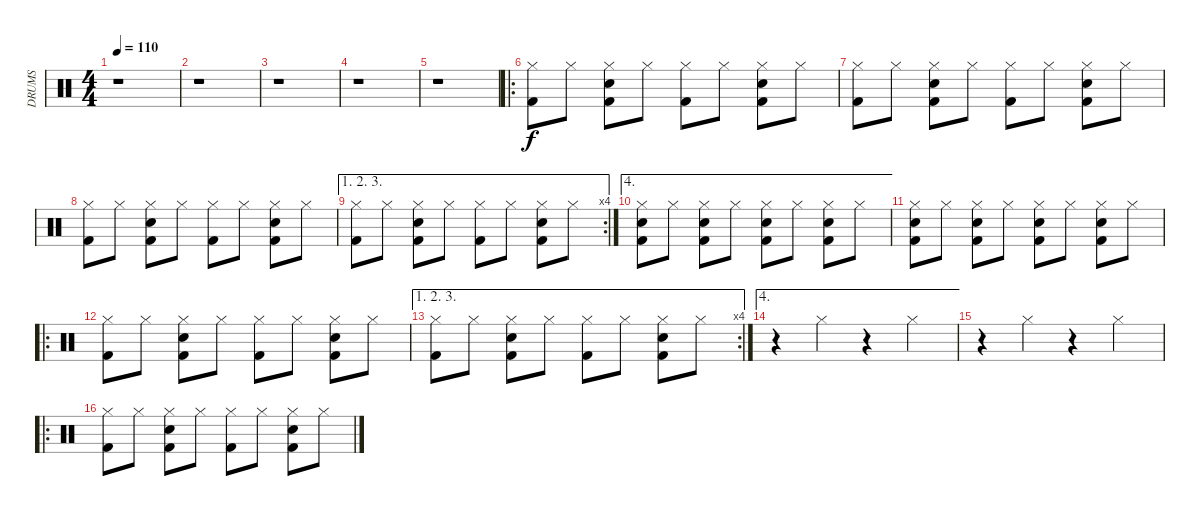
\track ("DRUMS" "DRUMS") {instrument percussion}
\staff {score}
\articulation defaults
\ts (4 4)
\tempo 110
\clef neutral
\ks c
r.1{dy f} |
r.1 |
r.1 |
r.1 |
r.1 |
\ro
("Hi-Hat (closed)" "Kick (hit) 2").8 "Hi-Hat (closed)".8 ("Hi-Hat (closed)" "Snare (hit) 2" "Kick (hit) 2").8 "Hi-Hat (closed)".8 ("Hi-Hat (closed)" "Kick (hit) 2").8 "Hi-Hat (closed)".8 ("Hi-Hat (closed)" "Snare (hit) 2" "Kick (hit) 2").8 "Hi-Hat (closed)".8 |
("Hi-Hat (closed)" "Kick (hit) 2").8 "Hi-Hat (closed)".8 ("Hi-Hat (closed)" "Snare (hit) 2" "Kick (hit) 2").8 "Hi-Hat (closed)".8 ("Hi-Hat (closed)" "Kick (hit) 2").8 "Hi-Hat (closed)".8 ("Hi-Hat (closed)" "Snare (hit) 2" "Kick (hit) 2").8 "Hi-Hat (closed)".8 |
("Hi-Hat (closed)" "Kick (hit) 2").8 "Hi-Hat (closed)".8 ("Hi-Hat (closed)" "Snare (hit) 2" "Kick (hit) 2").8 "Hi-Hat (closed)".8 ("Hi-Hat (closed)" "Kick (hit) 2").8 "Hi-Hat (closed)".8 ("Hi-Hat (closed)" "Snare (hit) 2" "Kick (hit) 2").8 "Hi-Hat (closed)".8 |
\ae (1 2 3)
\rc 4
("Hi-Hat (closed)" "Kick (hit) 2").8 "Hi-Hat (closed)".8 ("Hi-Hat (closed)" "Snare (hit) 2" "Kick (hit) 2").8 "Hi-Hat (closed)".8 ("Hi-Hat (closed)" "Kick (hit) 2").8 "Hi-Hat (closed)".8 ("Hi-Hat (closed)" "Snare (hit) 2" "Kick (hit) 2").8 "Hi-Hat (closed)".8 |
\ae 4
("Hi-Hat (closed)" "Snare (hit) 2" "Kick (hit) 2").8 "Hi-Hat (closed)".8 ("Hi-Hat (closed)" "Snare (hit) 2" "Kick (hit) 2").8 "Hi-Hat (closed)".8 ("Hi-Hat (closed)" "Snare (hit) 2" "Kick (hit) 2").8 "Hi-Hat (closed)".8 ("Hi-Hat (closed)" "Snare (hit) 2" "Kick (hit) 2").8 "Hi-Hat (closed)".8 |
("Hi-Hat (closed)" "Snare (hit) 2" "Kick (hit) 2").8 "Hi-Hat (closed)".8 ("Hi-Hat (closed)" "Snare (hit) 2" "Kick (hit) 2").8 "Hi-Hat (closed)".8 ("Hi-Hat (closed)" "Snare (hit) 2" "Kick (hit) 2").8 "Hi-Hat (closed)".8 ("Hi-Hat (closed)" "Snare (hit) 2" "Kick (hit) 2").8 "Hi-Hat (closed)".8 |
\ro
("Hi-Hat (closed)" "Kick (hit) 2").8 "Hi-Hat (closed)".8 ("Hi-Hat (closed)" "Snare (hit) 2" "Kick (hit) 2").8 "Hi-Hat (closed)".8 ("Hi-Hat (closed)" "Kick (hit) 2").8 "Hi-Hat (closed)".8 ("Hi-Hat (closed)" "Snare (hit) 2" "Kick (hit) 2").8 "Hi-Hat (closed)".8 |
\ae (1 2 3)
\rc 4
("Hi-Hat (closed)" "Kick (hit) 2").8 "Hi-Hat (closed)".8 ("Hi-Hat (closed)" "Snare (hit) 2" "Kick (hit) 2").8 "Hi-Hat (closed)".8 ("Hi-Hat (closed)" "Kick (hit) 2").8 "Hi-Hat (closed)".8 ("Hi-Hat (closed)" "Snare (hit) 2" "Kick (hit) 2").8 "Hi-Hat (closed)".8 |
\ae 4
r.4 "Hi-Hat (closed)".4 r.4 "Hi-Hat (closed)".4 |
r.4 "Hi-Hat (closed)".4 r.4 "Hi-Hat (closed)".4 |
\ro
("Hi-Hat (closed)" "Kick (hit) 2").8 "Hi-Hat (closed)".8 ("Hi-Hat (closed)" "Snare (hit) 2" "Kick (hit) 2").8 "Hi-Hat (closed)".8 ("Hi-Hat (closed)" "Kick (hit) 2").8 "Hi-Hat (closed)".8 ("Hi-Hat (closed)" "Snare (hit) 2" "Kick (hit) 2").8 "Hi-Hat (closed)".8
